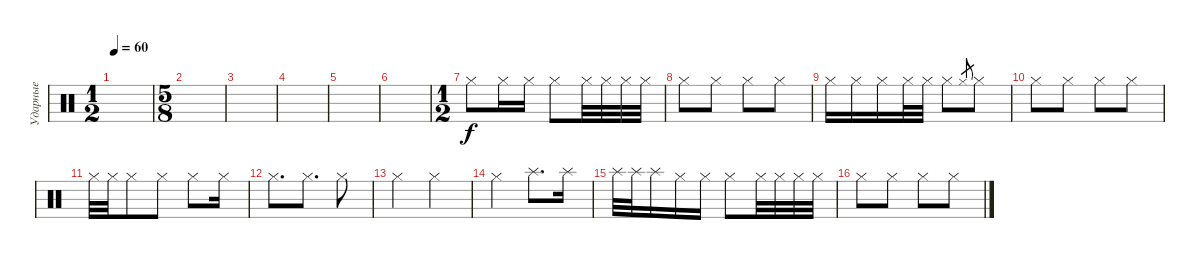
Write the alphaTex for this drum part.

\track ("Ударные" "Ударные") {instrument percussion}
\staff {score}
\articulation defaults
\ts (1 2)
\tempo 60
\clef neutral
\ks c
|
\ts (5 8)
|
|
|
|
|
\ts (1 2)
"Hi-Hat (closed)".8 "Hi-Hat (closed)".16 "Hi-Hat (closed)".16 "Hi-Hat (closed)".8 "Hi-Hat (closed)".32 "Hi-Hat (closed)".32 "Hi-Hat (closed)".32 "Hi-Hat (closed)".32 |
"Hi-Hat (closed)".8 "Hi-Hat (closed)".8 "Hi-Hat (closed)".8 "Hi-Hat (closed)".8 |
"Hi-Hat (closed)".16 "Hi-Hat (closed)".16 "Hi-Hat (closed)".16 "Hi-Hat (closed)".32 "Hi-Hat (closed)".32 "Hi-Hat (closed)".8 "Hi-Hat (closed)".8{gr} "Hi-Hat (closed)".8 |
"Hi-Hat (closed)".8 "Hi-Hat (closed)".8 "Hi-Hat (closed)".8 "Hi-Hat (closed)".8 |
"Hi-Hat (closed)".32 "Hi-Hat (closed)".32 "Hi-Hat (closed)".8 "Hi-Hat (closed)".8 "Hi-Hat (closed)".8 "Hi-Hat (closed)".16 |
"Hi-Hat (closed)".8{d} "Hi-Hat (closed)".8{d} "Hi-Hat (closed)".8 |
"Hi-Hat (closed)".4 "Hi-Hat (closed)".4 |
"Hi-Hat (closed)".4 "Splash (hit)".8{d} "Splash (hit)".16 |
"Splash (hit)".32 "Splash (hit)".32 "Splash (hit)".16 "Hi-Hat (closed)".16 "Hi-Hat (closed)".16 "Hi-Hat (closed)".8 "Hi-Hat (closed)".32 "Hi-Hat (closed)".32 "Hi-Hat (closed)".32 "Hi-Hat (closed)".32 |
"Hi-Hat (closed)".8 "Hi-Hat (closed)".8 "Hi-Hat (closed)".8 "Hi-Hat (closed)".8
